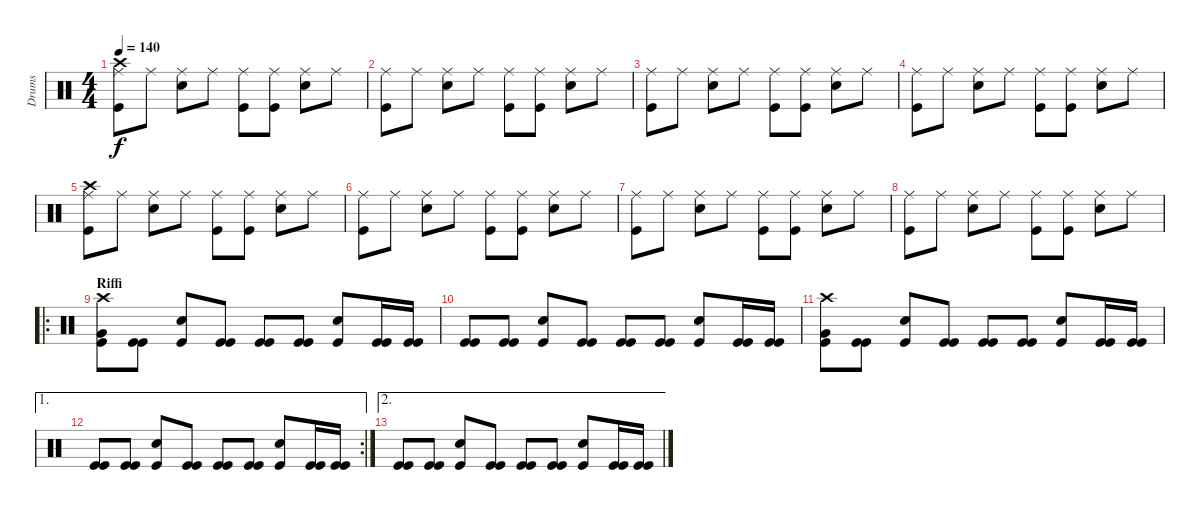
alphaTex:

\track ("Drums" "Drums") {instrument percussion}
\staff {score}
\articulation defaults
\ts (4 4)
\tempo 140
\clef neutral
\ks c
("Ride (middle)" "Crash high (hit)" "Kick (hit)").8{dy f} "Ride (middle)".8 ("Ride (middle)" "Snare (hit) 2").8 "Ride (middle)".8 ("Ride (middle)" "Kick (hit)").8 ("Ride (middle)" "Kick (hit)").8 ("Ride (middle)" "Snare (hit) 2").8 "Ride (middle)".8 |
("Ride (middle)" "Kick (hit)").8 "Ride (middle)".8 ("Ride (middle)" "Snare (hit) 2").8 "Ride (middle)".8 ("Ride (middle)" "Kick (hit)").8 ("Ride (middle)" "Kick (hit)").8 ("Ride (middle)" "Snare (hit) 2").8 "Ride (middle)".8 |
("Ride (middle)" "Kick (hit)").8 "Ride (middle)".8 ("Ride (middle)" "Snare (hit) 2").8 "Ride (middle)".8 ("Ride (middle)" "Kick (hit)").8 ("Ride (middle)" "Kick (hit)").8 ("Ride (middle)" "Snare (hit) 2").8 "Ride (middle)".8 |
("Ride (middle)" "Kick (hit)").8 "Ride (middle)".8 ("Ride (middle)" "Snare (hit) 2").8 "Ride (middle)".8 ("Ride (middle)" "Kick (hit)").8 ("Ride (middle)" "Kick (hit)").8 ("Ride (middle)" "Snare (hit) 2").8 "Ride (middle)".8 |
("Ride (middle)" "Crash high (hit)" "Kick (hit)").8 "Ride (middle)".8 ("Ride (middle)" "Snare (hit) 2").8 "Ride (middle)".8 ("Ride (middle)" "Kick (hit)").8 ("Ride (middle)" "Kick (hit)").8 ("Ride (middle)" "Snare (hit) 2").8 "Ride (middle)".8 |
("Ride (middle)" "Kick (hit)").8 "Ride (middle)".8 ("Ride (middle)" "Snare (hit) 2").8 "Ride (middle)".8 ("Ride (middle)" "Kick (hit)").8 ("Ride (middle)" "Kick (hit)").8 ("Ride (middle)" "Snare (hit) 2").8 "Ride (middle)".8 |
("Ride (middle)" "Kick (hit)").8 "Ride (middle)".8 ("Ride (middle)" "Snare (hit) 2").8 "Ride (middle)".8 ("Ride (middle)" "Kick (hit)").8 ("Ride (middle)" "Kick (hit)").8 ("Ride (middle)" "Snare (hit) 2").8 "Ride (middle)".8 |
("Ride (middle)" "Kick (hit)").8 "Ride (middle)".8 ("Ride (middle)" "Snare (hit) 2").8 "Ride (middle)".8 ("Ride (middle)" "Kick (hit)").8 ("Ride (middle)" "Kick (hit)").8 ("Ride (middle)" "Snare (hit) 2").8 "Ride (middle)".8 |
\ro
\section ("" "Riffi")
("Crash high (hit)" "Very Low Tom (hit)" "Kick (hit)").8 ("Kick (hit)" "Kick (hit)").8 ("Snare (hit) 2" "Kick (hit)").8 ("Kick (hit)" "Kick (hit)").8 ("Kick (hit)" "Kick (hit)").8 ("Kick (hit)" "Kick (hit)").8 ("Snare (hit) 2" "Kick (hit)").8 ("Kick (hit)" "Kick (hit)").16 ("Kick (hit)" "Kick (hit)").16 |
("Kick (hit)" "Kick (hit)").8 ("Kick (hit)" "Kick (hit)").8 ("Snare (hit) 2" "Kick (hit)").8 ("Kick (hit)" "Kick (hit)").8 ("Kick (hit)" "Kick (hit)").8 ("Kick (hit)" "Kick (hit)").8 ("Snare (hit) 2" "Kick (hit)").8 ("Kick (hit)" "Kick (hit)").16 ("Kick (hit)" "Kick (hit)").16 |
("Crash high (hit)" "Very Low Tom (hit)" "Kick (hit)").8 ("Kick (hit)" "Kick (hit)").8 ("Snare (hit) 2" "Kick (hit)").8 ("Kick (hit)" "Kick (hit)").8 ("Kick (hit)" "Kick (hit)").8 ("Kick (hit)" "Kick (hit)").8 ("Snare (hit) 2" "Kick (hit)").8 ("Kick (hit)" "Kick (hit)").16 ("Kick (hit)" "Kick (hit)").16 |
\ae 1
\rc 2
("Kick (hit)" "Kick (hit)").8 ("Kick (hit)" "Kick (hit)").8 ("Snare (hit) 2" "Kick (hit)").8 ("Kick (hit)" "Kick (hit)").8 ("Kick (hit)" "Kick (hit)").8 ("Kick (hit)" "Kick (hit)").8 ("Snare (hit) 2" "Kick (hit)").8 ("Kick (hit)" "Kick (hit)").16 ("Kick (hit)" "Kick (hit)").16 |
\ae 2
("Kick (hit)" "Kick (hit)").8 ("Kick (hit)" "Kick (hit)").8 ("Snare (hit) 2" "Kick (hit)").8 ("Kick (hit)" "Kick (hit)").8 ("Kick (hit)" "Kick (hit)").8 ("Kick (hit)" "Kick (hit)").8 ("Snare (hit) 2" "Kick (hit)").8 ("Kick (hit)" "Kick (hit)").16 ("Kick (hit)" "Kick (hit)").16
